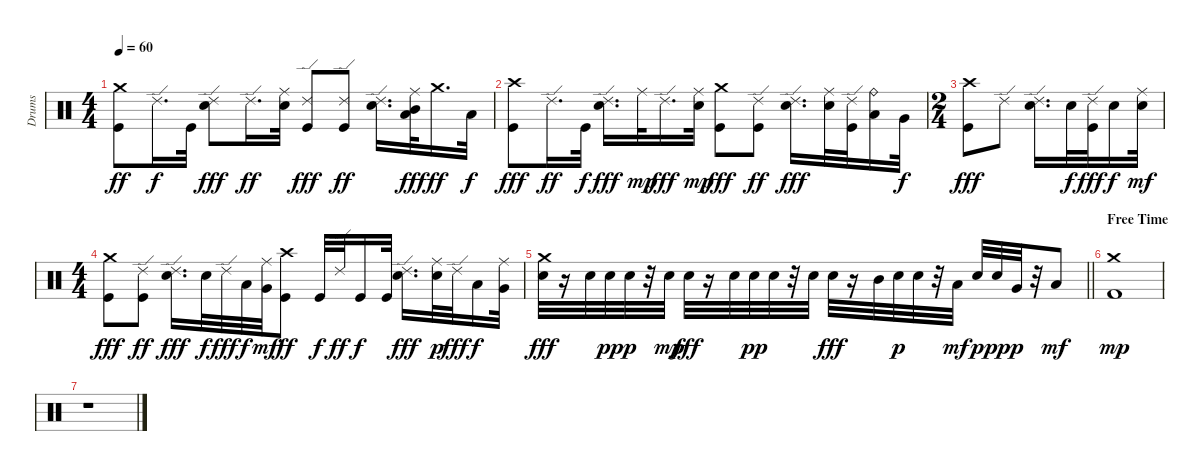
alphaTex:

\track ("Drums" "Drums") {instrument percussion}
\staff {score}
\articulation defaults
\ts (4 4)
\tempo 60
\clef neutral
\ks c
("Crash medium (hit)" "Kick (hit)").8{dy ff} "Ride (edge) 2".16{d dy f} "Kick (hit)".32 ("Ride (edge) 2" "Electric Snare (hit)").8{dy fff} "Ride (edge) 2".16{d dy ff} ("Ride (middle)" "Electric Snare (hit)").32 ("Ride (edge) 2" "Kick (hit)").8{dy fff} ("Ride (edge) 2" "Kick (hit)").8{dy ff} ("Ride (edge) 2" "Electric Snare (hit)").16{d} ("Ride (middle)" "Mid Tom (hit)" "Low Tom (hit)").32{dy fff} "Crash medium (hit)".16{d dy ff} "Low Floor Tom (hit)".32{dy f} |
("Crash high (hit)" "Kick (hit)").8{dy fff} "Ride (edge) 2".16{d dy ff} "Kick (hit)".32{dy f} ("Ride (edge) 2" "Electric Snare (hit)").16{d dy fff} "Ride (middle)".32{dy mp} "Ride (edge) 2".16{d dy fff} ("Ride (middle)" "Electric Snare (hit)").32{dy mp} ("Crash medium (hit)" "Kick (hit)").8{dy fff} ("Ride (edge) 2" "Kick (hit)").8{dy ff} ("Ride (edge) 2" "Electric Snare (hit)").16{d dy fff} ("Ride (middle)" "Electric Snare (hit)").32 ("Ride (edge) 2" "Kick (hit)").32 ("Ride (bell)" "Low Tom (hit)").16 "Very Low Tom (hit)".32{dy f} |
\ts (2 4)
("Crash high (hit)" "Kick (hit)").8{dy fff} "Ride (edge) 2".8 ("Ride (edge) 2" "Electric Snare (hit)").16{d} "Electric Snare (hit)".32{dy f} ("Ride (edge) 2" "Kick (hit)").32{dy fff} "Electric Snare (hit)".16{dy f} ("Ride (middle)" "Electric Snare (hit)").32{dy mf} |
\ts (4 4)
("Crash medium (hit)" "Kick (hit)").8{dy fff} ("Ride (edge) 2" "Kick (hit)").8{dy ff} ("Ride (edge) 2" "Electric Snare (hit)").16{d dy fff} "Electric Snare (hit)".32{dy f} "Ride (edge) 2".32{dy fff} "Low Tom (hit)".32{dy f} ("Ride (middle)" "Very Low Tom (hit)").32{dy mf} ("Crash high (hit)" "Kick (hit)").8{dy ff} "Kick (hit)".32{dy f} "Ride (edge) 2".32{dy ff} "Kick (hit)".16{dy f} "Kick (hit)".32 ("Ride (edge) 2" "Electric Snare (hit)").16{d dy fff} ("Ride (middle)" "Electric Snare (hit)").32{dy p} "Ride (edge) 2".32{dy fff} "Low Tom (hit)".16{dy f} ("Ride (middle)" "Very Low Tom (hit)").32 |
\barLineRight lightlight
("Crash medium (hit)" "Electric Snare (hit)").32{dy fff} r.16 "Electric Snare (hit)".32 "Electric Snare (hit)".32{dy pp} "Electric Snare (hit)".32{dy p} r.32 "Electric Snare (hit)".32{dy mp} "Electric Snare (hit)".32{dy fff} r.16 "Electric Snare (hit)".32 "Electric Snare (hit)".32{dy pp} "Electric Snare (hit)".32 r.32 "Electric Snare (hit)".32 "Electric Snare (hit)".32{dy fff} r.16 "Mid Tom (hit)".32 "Electric Snare (hit)".32{dy p} "Electric Snare (hit)".32 r.32 "Low Tom (hit)".32{dy mf} "Electric Snare (hit)".32{dy p} "Electric Snare (hit)".32{dy pp} "Very Low Tom (hit)".32{dy p} r.32 "Low Floor Tom (hit)".8{dy mf} |
\section ("" "Free Time")
("Crash medium (hit)" "Kick (hit) 2").1{dy mp} |
r.1
